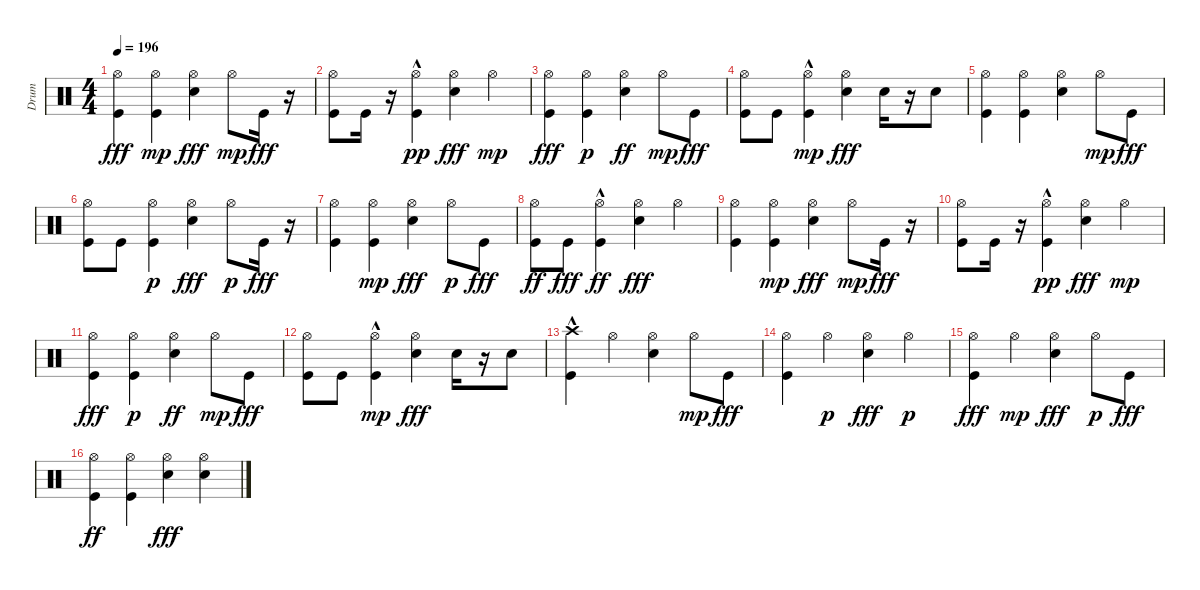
\track ("Drum" "Drum") {instrument percussion}
\staff {score}
\articulation defaults
\ts (4 4)
\tempo 196
\clef neutral
\ks c
("Kick (hit)" "Hi-Hat (open)").4{dy fff} ("Kick (hit)" "Hi-Hat (open)").4{dy mp} ("Hi-Hat (open)" "Snare (hit) 2").4{dy fff} "Hi-Hat (open)".8{dy mp} "Kick (hit)".16{dy fff} r.16 |
("Kick (hit)" "Hi-Hat (open)").8 "Kick (hit)".16 r.16 ("Kick (hit)"{hac} "Hi-Hat (open)").4{dy pp} ("Hi-Hat (open)" "Snare (hit) 2").4{dy fff} "Hi-Hat (open)".4{dy mp} |
("Kick (hit)" "Hi-Hat (open)").4{dy fff} ("Kick (hit)" "Hi-Hat (open)").4{dy p} ("Snare (hit) 2" "Hi-Hat (open)").4{dy ff} "Hi-Hat (open)".8{dy mp} "Kick (hit)".8{dy fff} |
("Kick (hit)" "Hi-Hat (open)").8 "Kick (hit)".8 ("Kick (hit)"{hac} "Hi-Hat (open)").4{dy mp} ("Hi-Hat (open)" "Snare (hit) 2").4{dy fff} "Snare (hit) 2".16 r.16 "Snare (hit) 2".8 |
("Kick (hit)" "Hi-Hat (open)").4 ("Kick (hit)" "Hi-Hat (open)").4 ("Hi-Hat (open)" "Snare (hit) 2").4 "Hi-Hat (open)".8{dy mp} "Kick (hit)".8{dy fff} |
("Kick (hit)" "Hi-Hat (open)").8 "Kick (hit)".8 ("Kick (hit)" "Hi-Hat (open)").4{dy p} ("Snare (hit) 2" "Hi-Hat (open)").4{dy fff} "Hi-Hat (open)".8{dy p} "Kick (hit)".16{dy fff} r.16 |
("Kick (hit)" "Hi-Hat (open)").4 ("Kick (hit)" "Hi-Hat (open)").4{dy mp} ("Hi-Hat (open)" "Snare (hit) 2").4{dy fff} "Hi-Hat (open)".8{dy p} "Kick (hit)".8{dy fff} |
("Kick (hit)" "Hi-Hat (open)").8{dy ff} "Kick (hit)".8{dy fff} ("Kick (hit)"{hac} "Hi-Hat (open)").4{dy ff} ("Hi-Hat (open)" "Snare (hit) 2").4{dy fff} "Hi-Hat (open)".4 |
("Kick (hit)" "Hi-Hat (open)").4 ("Kick (hit)" "Hi-Hat (open)").4{dy mp} ("Hi-Hat (open)" "Snare (hit) 2").4{dy fff} "Hi-Hat (open)".8{dy mp} "Kick (hit)".16{dy fff} r.16 |
("Kick (hit)" "Hi-Hat (open)").8 "Kick (hit)".16 r.16 ("Kick (hit)"{hac} "Hi-Hat (open)").4{dy pp} ("Hi-Hat (open)" "Snare (hit) 2").4{dy fff} "Hi-Hat (open)".4{dy mp} |
("Kick (hit)" "Hi-Hat (open)").4{dy fff} ("Kick (hit)" "Hi-Hat (open)").4{dy p} ("Snare (hit) 2" "Hi-Hat (open)").4{dy ff} "Hi-Hat (open)".8{dy mp} "Kick (hit)".8{dy fff} |
("Kick (hit)" "Hi-Hat (open)").8 "Kick (hit)".8 ("Kick (hit)"{hac} "Hi-Hat (open)").4{dy mp} ("Hi-Hat (open)" "Snare (hit) 2").4{dy fff} "Snare (hit) 2".16 r.16 "Snare (hit) 2".8 |
("Crash high (hit)" "Kick (hit)"{hac}).4 "Hi-Hat (open)".4 ("Hi-Hat (open)" "Snare (hit) 2").4 "Hi-Hat (open)".8{dy mp} "Kick (hit)".8{dy fff} |
("Kick (hit)" "Hi-Hat (open)").4 "Hi-Hat (open)".4{dy p} ("Snare (hit) 2" "Hi-Hat (open)").4{dy fff} "Hi-Hat (open)".4{dy p} |
("Kick (hit)" "Hi-Hat (open)").4{dy fff} "Hi-Hat (open)".4{dy mp} ("Hi-Hat (open)" "Snare (hit) 2").4{dy fff} "Hi-Hat (open)".8{dy p} "Kick (hit)".8{dy fff} |
("Kick (hit)" "Hi-Hat (open)").4{dy ff} ("Kick (hit)" "Hi-Hat (open)").4 ("Hi-Hat (open)" "Snare (hit) 2").4{dy fff} ("Metronome (bell)" "Hi-Hat (open)").4
